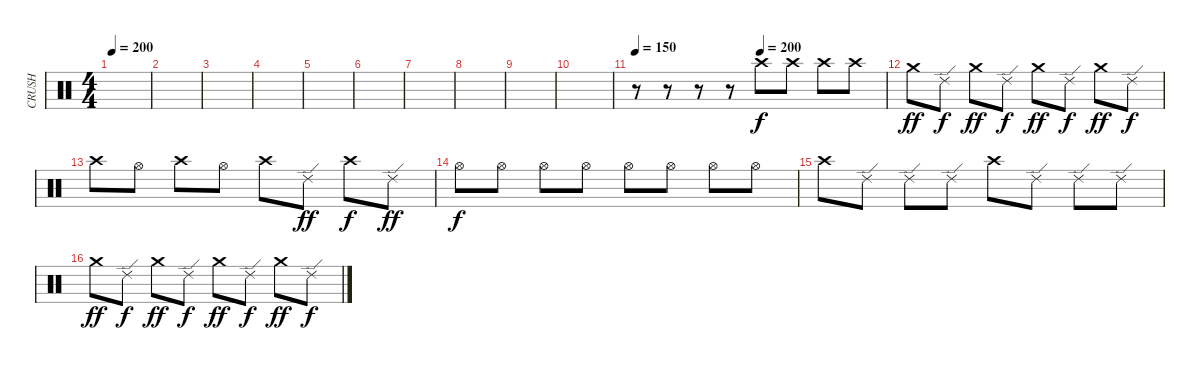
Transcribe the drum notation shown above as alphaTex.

\track ("CRUSH" "CRUSH") {instrument percussion}
\staff {score}
\articulation defaults
\ts (4 4)
\tempo 200
\clef neutral
\ks c
|
|
|
|
|
|
|
|
|
|
\tempo 150
\tempo (200 0.5)
r.8 r.8 r.8 r.8 "Crash high (hit)".8 "Crash high (hit)".8 "Crash high (hit)".8 "Crash high (hit)".8 |
"Crash medium (hit)".8{dy ff} "Ride (edge) 2".8{dy f} "Crash medium (hit)".8{dy ff} "Ride (edge) 2".8{dy f} "Crash medium (hit)".8{dy ff} "Ride (edge) 2".8{dy f} "Crash medium (hit)".8{dy ff} "Ride (edge) 2".8{dy f} |
"Crash high (hit)".8 "Hi-Hat (open)".8 "Crash high (hit)".8 "Hi-Hat (open)".8 "Crash high (hit)".8 "Ride (edge) 2".8{dy ff} "Crash high (hit)".8{dy f} "Ride (edge) 2".8{dy ff} |
"Hi-Hat (open)".8{dy f} "Hi-Hat (open)".8 "Hi-Hat (open)".8 "Hi-Hat (open)".8 "Hi-Hat (open)".8 "Hi-Hat (open)".8 "Hi-Hat (open)".8 "Hi-Hat (open)".8 |
"Crash high (hit)".8 "Ride (edge) 2".8 "Ride (edge) 2".8 "Ride (edge) 2".8 "Crash high (hit)".8 "Ride (edge) 2".8 "Ride (edge) 2".8 "Ride (edge) 2".8 |
"Crash medium (hit)".8{dy ff} "Ride (edge) 2".8{dy f} "Crash medium (hit)".8{dy ff} "Ride (edge) 2".8{dy f} "Crash medium (hit)".8{dy ff} "Ride (edge) 2".8{dy f} "Crash medium (hit)".8{dy ff} "Ride (edge) 2".8{dy f}
